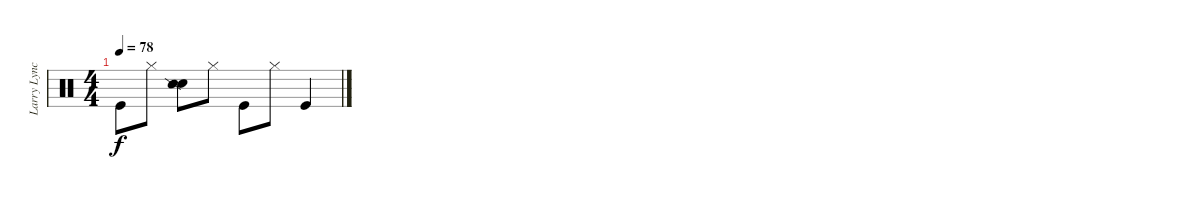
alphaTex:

\track ("Larry Lynch" "Larry Lync") {instrument percussion}
\staff {score}
\articulation defaults
\ts (4 4)
\tempo 78
\clef neutral
\ks c "Kick (hit)".8{dy f} "Hi-Hat (closed)".8
("Electric Snare (hit)" "Snare (side stick) 2").8 "Hi-Hat (closed)".8 "Kick (hit)".8 "Hi-Hat (closed)".8 "Kick (hit)".4
